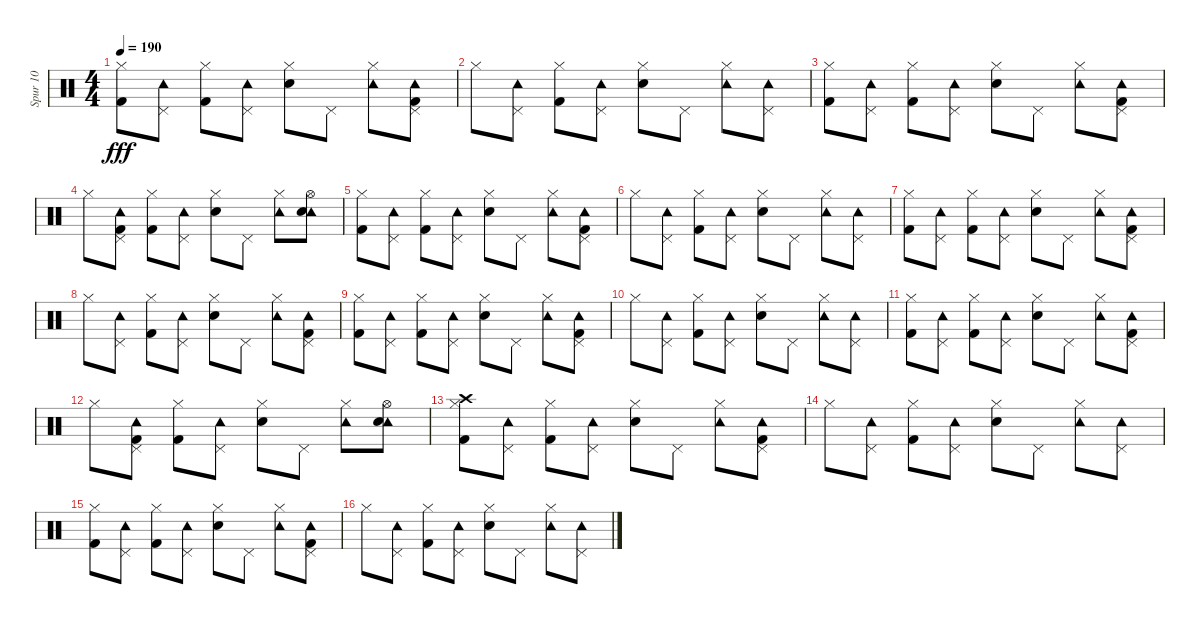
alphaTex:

\track ("Spur 10" "Spur 10") {instrument percussion}
\staff {score}
\articulation defaults
\ts (4 4)
\tempo 190
\clef neutral
\ks c
("Hi-Hat (closed)" "Kick (hit) 2").8{dy fff} ("Pedal Hi-Hat (hit)" "Tambourine (hit)").8 ("Hi-Hat (closed)" "Kick (hit) 2").8 ("Tambourine (hit)" "Pedal Hi-Hat (hit)").8 ("Hi-Hat (closed)" "Electric Snare (hit)").8 "Pedal Hi-Hat (hit)".8 ("Tambourine (hit)" "Hi-Hat (closed)").8 ("Tambourine (hit)" "Pedal Hi-Hat (hit)" "Kick (hit) 2").8 |
"Hi-Hat (closed)".8 ("Tambourine (hit)" "Pedal Hi-Hat (hit)").8 ("Kick (hit) 2" "Hi-Hat (closed)").8 ("Pedal Hi-Hat (hit)" "Tambourine (hit)").8 ("Hi-Hat (closed)" "Electric Snare (hit)").8 "Pedal Hi-Hat (hit)".8 ("Tambourine (hit)" "Hi-Hat (closed)").8 ("Tambourine (hit)" "Pedal Hi-Hat (hit)").8 |
("Hi-Hat (closed)" "Kick (hit) 2").8 ("Pedal Hi-Hat (hit)" "Tambourine (hit)").8 ("Kick (hit) 2" "Hi-Hat (closed)").8 ("Tambourine (hit)" "Pedal Hi-Hat (hit)").8 ("Hi-Hat (closed)" "Electric Snare (hit)").8 "Pedal Hi-Hat (hit)".8 ("Tambourine (hit)" "Hi-Hat (closed)").8 ("Tambourine (hit)" "Pedal Hi-Hat (hit)" "Kick (hit) 2").8 |
"Hi-Hat (closed)".8 ("Tambourine (hit)" "Pedal Hi-Hat (hit)" "Kick (hit) 2").8 ("Hi-Hat (closed)" "Kick (hit) 2").8 ("Pedal Hi-Hat (hit)" "Tambourine (hit)").8 ("Hi-Hat (closed)" "Electric Snare (hit)").8 "Pedal Hi-Hat (hit)".8 ("Tambourine (hit)" "Hi-Hat (closed)").8 ("Tambourine (hit)" "Hi-Hat (open)" "Electric Snare (hit)").8 |
("Hi-Hat (closed)" "Kick (hit) 2").8 ("Tambourine (hit)" "Pedal Hi-Hat (hit)").8 ("Kick (hit) 2" "Hi-Hat (closed)").8 ("Tambourine (hit)" "Pedal Hi-Hat (hit)").8 ("Hi-Hat (closed)" "Electric Snare (hit)").8 "Pedal Hi-Hat (hit)".8 ("Tambourine (hit)" "Hi-Hat (closed)").8 ("Tambourine (hit)" "Pedal Hi-Hat (hit)" "Kick (hit) 2").8 |
"Hi-Hat (closed)".8 ("Tambourine (hit)" "Pedal Hi-Hat (hit)").8 ("Hi-Hat (closed)" "Kick (hit) 2").8 ("Pedal Hi-Hat (hit)" "Tambourine (hit)").8 ("Hi-Hat (closed)" "Electric Snare (hit)").8 "Pedal Hi-Hat (hit)".8 ("Tambourine (hit)" "Hi-Hat (closed)").8 ("Tambourine (hit)" "Pedal Hi-Hat (hit)").8 |
("Hi-Hat (closed)" "Kick (hit) 2").8 ("Tambourine (hit)" "Pedal Hi-Hat (hit)").8 ("Hi-Hat (closed)" "Kick (hit) 2").8 ("Tambourine (hit)" "Pedal Hi-Hat (hit)").8 ("Hi-Hat (closed)" "Electric Snare (hit)").8 "Pedal Hi-Hat (hit)".8 ("Tambourine (hit)" "Hi-Hat (closed)").8 ("Tambourine (hit)" "Pedal Hi-Hat (hit)" "Kick (hit) 2").8 |
"Hi-Hat (closed)".8 ("Tambourine (hit)" "Pedal Hi-Hat (hit)").8 ("Hi-Hat (closed)" "Kick (hit) 2").8 ("Tambourine (hit)" "Pedal Hi-Hat (hit)").8 ("Hi-Hat (closed)" "Electric Snare (hit)").8 "Pedal Hi-Hat (hit)".8 ("Tambourine (hit)" "Hi-Hat (closed)").8 ("Tambourine (hit)" "Pedal Hi-Hat (hit)" "Kick (hit) 2").8 |
("Hi-Hat (closed)" "Kick (hit) 2").8 ("Tambourine (hit)" "Pedal Hi-Hat (hit)").8 ("Hi-Hat (closed)" "Kick (hit) 2").8 ("Pedal Hi-Hat (hit)" "Tambourine (hit)").8 ("Hi-Hat (closed)" "Electric Snare (hit)").8 "Pedal Hi-Hat (hit)".8 ("Tambourine (hit)" "Hi-Hat (closed)").8 ("Pedal Hi-Hat (hit)" "Kick (hit) 2" "Tambourine (hit)").8 |
"Hi-Hat (closed)".8 ("Tambourine (hit)" "Pedal Hi-Hat (hit)").8 ("Hi-Hat (closed)" "Kick (hit) 2").8 ("Pedal Hi-Hat (hit)" "Tambourine (hit)").8 ("Hi-Hat (closed)" "Electric Snare (hit)").8 "Pedal Hi-Hat (hit)".8 ("Tambourine (hit)" "Hi-Hat (closed)").8 ("Pedal Hi-Hat (hit)" "Tambourine (hit)").8 |
("Hi-Hat (closed)" "Kick (hit) 2").8 ("Tambourine (hit)" "Pedal Hi-Hat (hit)").8 ("Hi-Hat (closed)" "Kick (hit) 2").8 ("Pedal Hi-Hat (hit)" "Tambourine (hit)").8 ("Hi-Hat (closed)" "Electric Snare (hit)").8 "Pedal Hi-Hat (hit)".8 ("Tambourine (hit)" "Hi-Hat (closed)").8 ("Pedal Hi-Hat (hit)" "Kick (hit) 2" "Tambourine (hit)").8 |
"Hi-Hat (closed)".8 ("Tambourine (hit)" "Kick (hit) 2" "Pedal Hi-Hat (hit)").8 ("Kick (hit) 2" "Hi-Hat (closed)").8 ("Tambourine (hit)" "Pedal Hi-Hat (hit)").8 ("Electric Snare (hit)" "Hi-Hat (closed)").8 "Pedal Hi-Hat (hit)".8 ("Tambourine (hit)" "Hi-Hat (closed)").8 ("Tambourine (hit)" "Electric Snare (hit)" "Hi-Hat (open)").8 |
("Crash high (hit)" "Kick (hit) 2" "Hi-Hat (closed)").8 ("Tambourine (hit)" "Pedal Hi-Hat (hit)").8 ("Hi-Hat (closed)" "Kick (hit) 2").8 ("Tambourine (hit)" "Pedal Hi-Hat (hit)").8 ("Hi-Hat (closed)" "Electric Snare (hit)").8 "Pedal Hi-Hat (hit)".8 ("Tambourine (hit)" "Hi-Hat (closed)").8 ("Tambourine (hit)" "Pedal Hi-Hat (hit)" "Kick (hit) 2").8 |
"Hi-Hat (closed)".8 ("Tambourine (hit)" "Pedal Hi-Hat (hit)").8 ("Hi-Hat (closed)" "Kick (hit) 2").8 ("Tambourine (hit)" "Pedal Hi-Hat (hit)").8 ("Hi-Hat (closed)" "Electric Snare (hit)").8 "Pedal Hi-Hat (hit)".8 ("Tambourine (hit)" "Hi-Hat (closed)").8 ("Tambourine (hit)" "Pedal Hi-Hat (hit)").8 |
("Hi-Hat (closed)" "Kick (hit) 2").8 ("Tambourine (hit)" "Pedal Hi-Hat (hit)").8 ("Hi-Hat (closed)" "Kick (hit) 2").8 ("Tambourine (hit)" "Pedal Hi-Hat (hit)").8 ("Hi-Hat (closed)" "Electric Snare (hit)").8 "Pedal Hi-Hat (hit)".8 ("Tambourine (hit)" "Hi-Hat (closed)").8 ("Tambourine (hit)" "Pedal Hi-Hat (hit)" "Kick (hit) 2").8 |
"Hi-Hat (closed)".8 ("Tambourine (hit)" "Pedal Hi-Hat (hit)").8 ("Kick (hit) 2" "Hi-Hat (closed)").8 ("Tambourine (hit)" "Pedal Hi-Hat (hit)").8 ("Hi-Hat (closed)" "Electric Snare (hit)").8 "Pedal Hi-Hat (hit)".8 ("Tambourine (hit)" "Hi-Hat (closed)").8 ("Tambourine (hit)" "Pedal Hi-Hat (hit)").8
